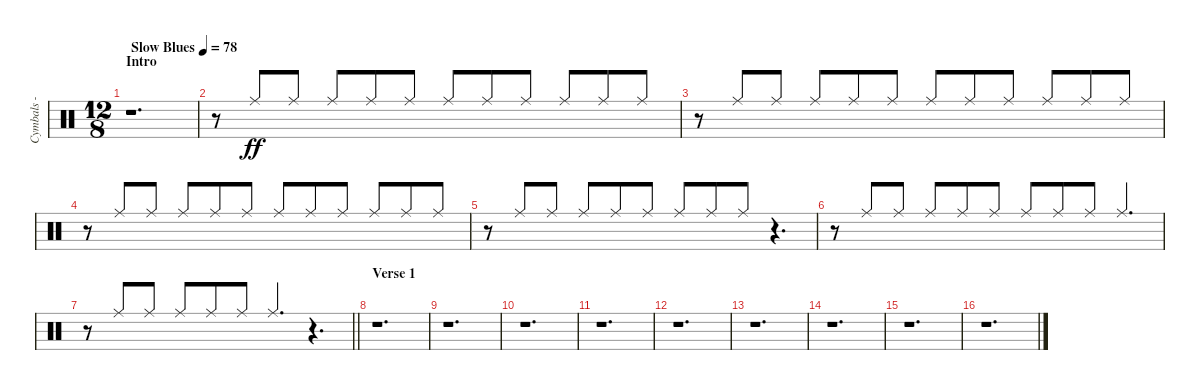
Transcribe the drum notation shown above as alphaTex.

\track ("Cymbals - ride" "Cymbals - ") {instrument percussion}
\staff {score}
\articulation defaults
\ts (12 8)
\section ("" "Intro")
\tempo (78 "Slow Blues")
\clef neutral
\ks c
r.1{d dy ff volume 5 balance 5} |
r.8 "Ride (middle)".8{beam Up} "Ride (middle)".8{beam Up} "Ride (middle)".8{beam Up} "Ride (middle)".8{beam Up} "Ride (middle)".8{beam Up} "Ride (middle)".8{beam Up} "Ride (middle)".8{beam Up} "Ride (middle)".8{beam Up} "Ride (middle)".8{beam Up} "Ride (middle)".8{beam Up} "Ride (middle)".8{beam Up} |
r.8 "Ride (middle)".8{beam Up} "Ride (middle)".8{beam Up} "Ride (middle)".8{beam Up} "Ride (middle)".8{beam Up} "Ride (middle)".8{beam Up} "Ride (middle)".8{beam Up} "Ride (middle)".8{beam Up} "Ride (middle)".8{beam Up} "Ride (middle)".8{beam Up} "Ride (middle)".8{beam Up} "Ride (middle)".8{beam Up} |
r.8 "Ride (middle)".8{beam Up} "Ride (middle)".8{beam Up} "Ride (middle)".8{beam Up} "Ride (middle)".8{beam Up} "Ride (middle)".8{beam Up} "Ride (middle)".8{beam Up} "Ride (middle)".8{beam Up} "Ride (middle)".8{beam Up} "Ride (middle)".8{beam Up} "Ride (middle)".8{beam Up} "Ride (middle)".8{beam Up} |
r.8 "Ride (middle)".8{beam Up} "Ride (middle)".8{beam Up} "Ride (middle)".8{beam Up} "Ride (middle)".8{beam Up} "Ride (middle)".8{beam Up} "Ride (middle)".8{beam Up} "Ride (middle)".8{beam Up} "Ride (middle)".8{beam Up} r.4{d} |
r.8 "Ride (middle)".8{beam Up} "Ride (middle)".8{beam Up} "Ride (middle)".8{beam Up} "Ride (middle)".8{beam Up} "Ride (middle)".8{beam Up} "Ride (middle)".8{beam Up} "Ride (middle)".8{beam Up} "Ride (middle)".8{beam Up} "Ride (middle)".4{d beam Up} |
\barLineRight lightlight
r.8 "Ride (middle)".8{beam Up} "Ride (middle)".8{beam Up} "Ride (middle)".8{beam Up} "Ride (middle)".8{beam Up} "Ride (middle)".8{beam Up} "Ride (middle)".4{d beam Up} r.4{d} |
\section ("" "Verse 1")
r.1{d} |
r.1{d} |
r.1{d} |
r.1{d} |
r.1{d} |
r.1{d} |
r.1{d} |
r.1{d} |
r.1{d}
